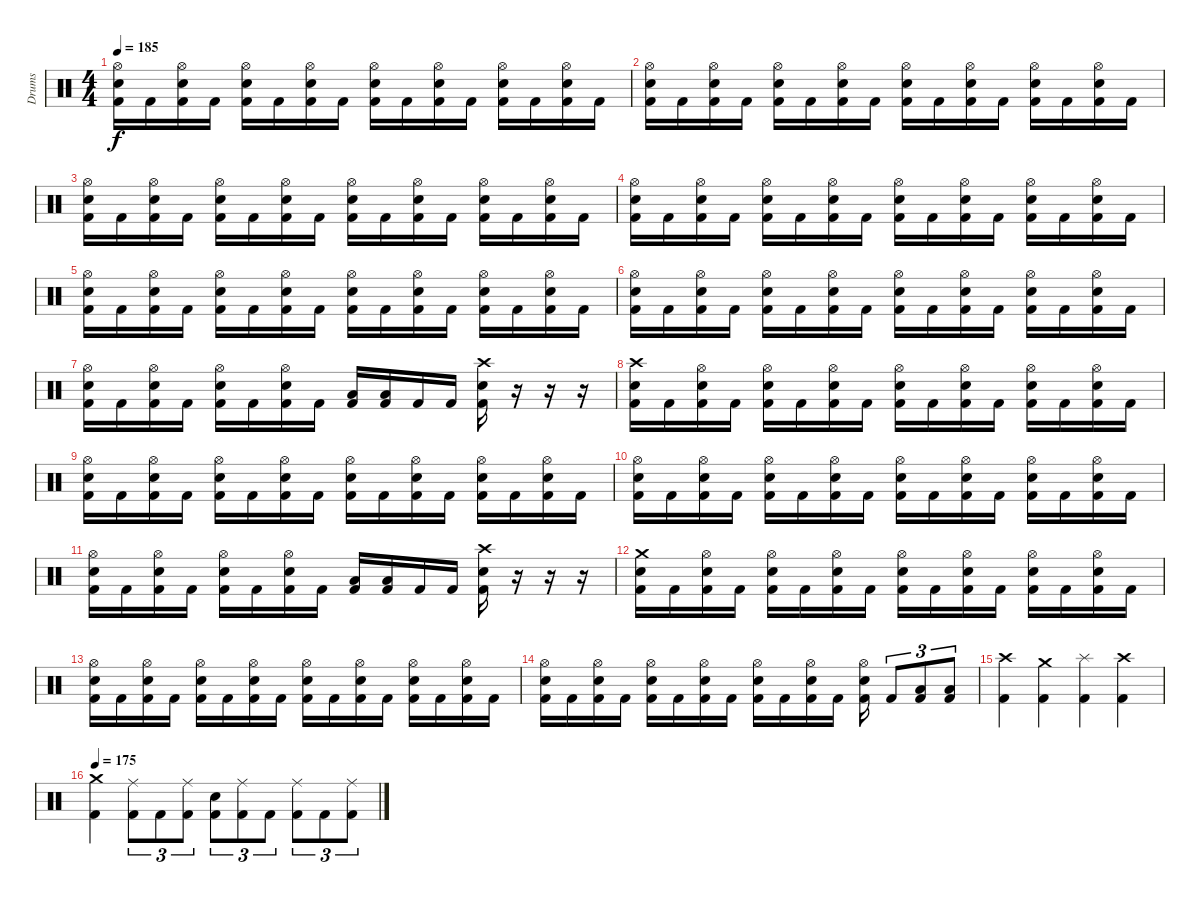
\track ("Drums" "Drums") {instrument percussion}
\staff {score}
\articulation defaults
\ts (4 4)
\tempo 185
\clef neutral
\ks c
("Hi-Hat (open)" "Electric Snare (hit)" "Kick (hit) 2").16{dy f} "Kick (hit) 2".16 ("Hi-Hat (open)" "Electric Snare (hit)" "Kick (hit) 2").16 "Kick (hit) 2".16 ("Hi-Hat (open)" "Electric Snare (hit)" "Kick (hit) 2").16 "Kick (hit) 2".16 ("Hi-Hat (open)" "Electric Snare (hit)" "Kick (hit) 2").16 "Kick (hit) 2".16 ("Hi-Hat (open)" "Electric Snare (hit)" "Kick (hit) 2").16 "Kick (hit) 2".16 ("Hi-Hat (open)" "Electric Snare (hit)" "Kick (hit) 2").16 "Kick (hit) 2".16 ("Hi-Hat (open)" "Electric Snare (hit)" "Kick (hit) 2").16 "Kick (hit) 2".16 ("Hi-Hat (open)" "Electric Snare (hit)" "Kick (hit) 2").16 "Kick (hit) 2".16 |
("Hi-Hat (open)" "Electric Snare (hit)" "Kick (hit) 2").16 "Kick (hit) 2".16 ("Hi-Hat (open)" "Electric Snare (hit)" "Kick (hit) 2").16 "Kick (hit) 2".16 ("Hi-Hat (open)" "Electric Snare (hit)" "Kick (hit) 2").16 "Kick (hit) 2".16 ("Hi-Hat (open)" "Electric Snare (hit)" "Kick (hit) 2").16 "Kick (hit) 2".16 ("Hi-Hat (open)" "Electric Snare (hit)" "Kick (hit) 2").16 "Kick (hit) 2".16 ("Hi-Hat (open)" "Electric Snare (hit)" "Kick (hit) 2").16 "Kick (hit) 2".16 ("Hi-Hat (open)" "Electric Snare (hit)" "Kick (hit) 2").16 "Kick (hit) 2".16 ("Hi-Hat (open)" "Electric Snare (hit)" "Kick (hit) 2").16 "Kick (hit) 2".16 |
("Hi-Hat (open)" "Electric Snare (hit)" "Kick (hit) 2").16 "Kick (hit) 2".16 ("Hi-Hat (open)" "Electric Snare (hit)" "Kick (hit) 2").16 "Kick (hit) 2".16 ("Hi-Hat (open)" "Electric Snare (hit)" "Kick (hit) 2").16 "Kick (hit) 2".16 ("Hi-Hat (open)" "Electric Snare (hit)" "Kick (hit) 2").16 "Kick (hit) 2".16 ("Hi-Hat (open)" "Electric Snare (hit)" "Kick (hit) 2").16 "Kick (hit) 2".16 ("Hi-Hat (open)" "Electric Snare (hit)" "Kick (hit) 2").16 "Kick (hit) 2".16 ("Hi-Hat (open)" "Electric Snare (hit)" "Kick (hit) 2").16 "Kick (hit) 2".16 ("Hi-Hat (open)" "Electric Snare (hit)" "Kick (hit) 2").16 "Kick (hit) 2".16 |
("Hi-Hat (open)" "Electric Snare (hit)" "Kick (hit) 2").16 "Kick (hit) 2".16 ("Hi-Hat (open)" "Electric Snare (hit)" "Kick (hit) 2").16 "Kick (hit) 2".16 ("Hi-Hat (open)" "Electric Snare (hit)" "Kick (hit) 2").16 "Kick (hit) 2".16 ("Hi-Hat (open)" "Electric Snare (hit)" "Kick (hit) 2").16 "Kick (hit) 2".16 ("Hi-Hat (open)" "Electric Snare (hit)" "Kick (hit) 2").16 "Kick (hit) 2".16 ("Hi-Hat (open)" "Electric Snare (hit)" "Kick (hit) 2").16 "Kick (hit) 2".16 ("Hi-Hat (open)" "Electric Snare (hit)" "Kick (hit) 2").16 "Kick (hit) 2".16 ("Hi-Hat (open)" "Electric Snare (hit)" "Kick (hit) 2").16 "Kick (hit) 2".16 |
("Hi-Hat (open)" "Electric Snare (hit)" "Kick (hit) 2").16 "Kick (hit) 2".16 ("Hi-Hat (open)" "Electric Snare (hit)" "Kick (hit) 2").16 "Kick (hit) 2".16 ("Hi-Hat (open)" "Electric Snare (hit)" "Kick (hit) 2").16 "Kick (hit) 2".16 ("Hi-Hat (open)" "Electric Snare (hit)" "Kick (hit) 2").16 "Kick (hit) 2".16 ("Hi-Hat (open)" "Electric Snare (hit)" "Kick (hit) 2").16 "Kick (hit) 2".16 ("Hi-Hat (open)" "Electric Snare (hit)" "Kick (hit) 2").16 "Kick (hit) 2".16 ("Hi-Hat (open)" "Electric Snare (hit)" "Kick (hit) 2").16 "Kick (hit) 2".16 ("Hi-Hat (open)" "Electric Snare (hit)" "Kick (hit) 2").16 "Kick (hit) 2".16 |
("Hi-Hat (open)" "Electric Snare (hit)" "Kick (hit) 2").16 "Kick (hit) 2".16 ("Hi-Hat (open)" "Electric Snare (hit)" "Kick (hit) 2").16 "Kick (hit) 2".16 ("Hi-Hat (open)" "Electric Snare (hit)" "Kick (hit) 2").16 "Kick (hit) 2".16 ("Hi-Hat (open)" "Electric Snare (hit)" "Kick (hit) 2").16 "Kick (hit) 2".16 ("Hi-Hat (open)" "Electric Snare (hit)" "Kick (hit) 2").16 "Kick (hit) 2".16 ("Hi-Hat (open)" "Electric Snare (hit)" "Kick (hit) 2").16 "Kick (hit) 2".16 ("Hi-Hat (open)" "Electric Snare (hit)" "Kick (hit) 2").16 "Kick (hit) 2".16 ("Hi-Hat (open)" "Electric Snare (hit)" "Kick (hit) 2").16 "Kick (hit) 2".16 |
("Hi-Hat (open)" "Electric Snare (hit)" "Kick (hit) 2").16 "Kick (hit) 2".16 ("Hi-Hat (open)" "Electric Snare (hit)" "Kick (hit) 2").16 "Kick (hit) 2".16 ("Hi-Hat (open)" "Electric Snare (hit)" "Kick (hit) 2").16 "Kick (hit) 2".16 ("Hi-Hat (open)" "Electric Snare (hit)" "Kick (hit) 2").16 "Kick (hit) 2".16 ("Low Tom (hit)" "Kick (hit) 2").16 ("Low Tom (hit)" "Kick (hit) 2").16 "Kick (hit) 2".16 "Kick (hit) 2".16 ("Crash high (hit)" "Electric Snare (hit)" "Kick (hit) 2").16 r.16 r.16 r.16 |
("Crash high (hit)" "Electric Snare (hit)" "Kick (hit) 2").16 "Kick (hit) 2".16 ("Hi-Hat (open)" "Electric Snare (hit)" "Kick (hit) 2").16 "Kick (hit) 2".16 ("Hi-Hat (open)" "Electric Snare (hit)" "Kick (hit) 2").16 "Kick (hit) 2".16 ("Hi-Hat (open)" "Electric Snare (hit)" "Kick (hit) 2").16 "Kick (hit) 2".16 ("Hi-Hat (open)" "Electric Snare (hit)" "Kick (hit) 2").16 "Kick (hit) 2".16 ("Hi-Hat (open)" "Electric Snare (hit)" "Kick (hit) 2").16 "Kick (hit) 2".16 ("Hi-Hat (open)" "Electric Snare (hit)" "Kick (hit) 2").16 "Kick (hit) 2".16 ("Hi-Hat (open)" "Electric Snare (hit)" "Kick (hit) 2").16 "Kick (hit) 2".16 |
("Hi-Hat (open)" "Electric Snare (hit)" "Kick (hit) 2").16 "Kick (hit) 2".16 ("Hi-Hat (open)" "Electric Snare (hit)" "Kick (hit) 2").16 "Kick (hit) 2".16 ("Hi-Hat (open)" "Electric Snare (hit)" "Kick (hit) 2").16 "Kick (hit) 2".16 ("Hi-Hat (open)" "Electric Snare (hit)" "Kick (hit) 2").16 "Kick (hit) 2".16 ("Hi-Hat (open)" "Electric Snare (hit)" "Kick (hit) 2").16 "Kick (hit) 2".16 ("Hi-Hat (open)" "Electric Snare (hit)" "Kick (hit) 2").16 "Kick (hit) 2".16 ("Hi-Hat (open)" "Electric Snare (hit)" "Kick (hit) 2").16 "Kick (hit) 2".16 ("Hi-Hat (open)" "Electric Snare (hit)" "Kick (hit) 2").16 "Kick (hit) 2".16 |
("Hi-Hat (open)" "Electric Snare (hit)" "Kick (hit) 2").16 "Kick (hit) 2".16 ("Hi-Hat (open)" "Electric Snare (hit)" "Kick (hit) 2").16 "Kick (hit) 2".16 ("Hi-Hat (open)" "Electric Snare (hit)" "Kick (hit) 2").16 "Kick (hit) 2".16 ("Hi-Hat (open)" "Electric Snare (hit)" "Kick (hit) 2").16 "Kick (hit) 2".16 ("Hi-Hat (open)" "Electric Snare (hit)" "Kick (hit) 2").16 "Kick (hit) 2".16 ("Hi-Hat (open)" "Electric Snare (hit)" "Kick (hit) 2").16 "Kick (hit) 2".16 ("Hi-Hat (open)" "Electric Snare (hit)" "Kick (hit) 2").16 "Kick (hit) 2".16 ("Hi-Hat (open)" "Electric Snare (hit)" "Kick (hit) 2").16 "Kick (hit) 2".16 |
("Hi-Hat (open)" "Electric Snare (hit)" "Kick (hit) 2").16 "Kick (hit) 2".16 ("Hi-Hat (open)" "Electric Snare (hit)" "Kick (hit) 2").16 "Kick (hit) 2".16 ("Hi-Hat (open)" "Electric Snare (hit)" "Kick (hit) 2").16 "Kick (hit) 2".16 ("Hi-Hat (open)" "Electric Snare (hit)" "Kick (hit) 2").16 "Kick (hit) 2".16 ("Low Tom (hit)" "Kick (hit) 2").16 ("Low Tom (hit)" "Kick (hit) 2").16 "Kick (hit) 2".16 "Kick (hit) 2".16 ("Crash high (hit)" "Electric Snare (hit)" "Kick (hit) 2").16 r.16 r.16 r.16 |
("Crash medium (hit)" "Electric Snare (hit)" "Kick (hit) 2").16 "Kick (hit) 2".16 ("Hi-Hat (open)" "Electric Snare (hit)" "Kick (hit) 2").16 "Kick (hit) 2".16 ("Hi-Hat (open)" "Electric Snare (hit)" "Kick (hit) 2").16 "Kick (hit) 2".16 ("Hi-Hat (open)" "Electric Snare (hit)" "Kick (hit) 2").16 "Kick (hit) 2".16 ("Hi-Hat (open)" "Electric Snare (hit)" "Kick (hit) 2").16 "Kick (hit) 2".16 ("Hi-Hat (open)" "Electric Snare (hit)" "Kick (hit) 2").16 "Kick (hit) 2".16 ("Hi-Hat (open)" "Electric Snare (hit)" "Kick (hit) 2").16 "Kick (hit) 2".16 ("Hi-Hat (open)" "Electric Snare (hit)" "Kick (hit) 2").16 "Kick (hit) 2".16 |
("Hi-Hat (open)" "Electric Snare (hit)" "Kick (hit) 2").16 "Kick (hit) 2".16 ("Hi-Hat (open)" "Electric Snare (hit)" "Kick (hit) 2").16 "Kick (hit) 2".16 ("Hi-Hat (open)" "Electric Snare (hit)" "Kick (hit) 2").16 "Kick (hit) 2".16 ("Hi-Hat (open)" "Electric Snare (hit)" "Kick (hit) 2").16 "Kick (hit) 2".16 ("Hi-Hat (open)" "Electric Snare (hit)" "Kick (hit) 2").16 "Kick (hit) 2".16 ("Hi-Hat (open)" "Electric Snare (hit)" "Kick (hit) 2").16 "Kick (hit) 2".16 ("Hi-Hat (open)" "Electric Snare (hit)" "Kick (hit) 2").16 "Kick (hit) 2".16 ("Hi-Hat (open)" "Electric Snare (hit)" "Kick (hit) 2").16 "Kick (hit) 2".16 |
("Hi-Hat (open)" "Electric Snare (hit)" "Kick (hit) 2").16 "Kick (hit) 2".16 ("Hi-Hat (open)" "Electric Snare (hit)" "Kick (hit) 2").16 "Kick (hit) 2".16 ("Hi-Hat (open)" "Electric Snare (hit)" "Kick (hit) 2").16 "Kick (hit) 2".16 ("Hi-Hat (open)" "Electric Snare (hit)" "Kick (hit) 2").16 "Kick (hit) 2".16 ("Hi-Hat (open)" "Electric Snare (hit)" "Kick (hit) 2").16 "Kick (hit) 2".16 ("Hi-Hat (open)" "Electric Snare (hit)" "Kick (hit) 2").16 "Kick (hit) 2".16 ("Hi-Hat (open)" "Electric Snare (hit)" "Kick (hit) 2").16 "Kick (hit) 2".8{tu (3 2)} ("Low Tom (hit)" "Kick (hit) 2").8{tu (3 2)} ("Low Tom (hit)" "Kick (hit) 2").8{tu (3 2)} |
("Crash high (hit)" "Kick (hit) 2").4 ("Crash medium (hit)" "Kick (hit) 2").4 ("Splash (hit)" "Kick (hit) 2").4 ("Crash high (hit)" "Kick (hit) 2").4 |
\tempo 175
("Crash medium (hit)" "Kick (hit) 2").4 ("Ride (middle)" "Kick (hit) 2").8{tu (3 2)} "Kick (hit) 2".8{tu (3 2)} ("Ride (middle)" "Kick (hit) 2").8{tu (3 2)} ("Electric Snare (hit)" "Kick (hit) 2").8{tu (3 2)} ("Ride (middle)" "Kick (hit) 2").8{tu (3 2)} "Kick (hit) 2".8{tu (3 2)} ("Ride (middle)" "Kick (hit) 2").8{tu (3 2)} "Kick (hit) 2".8{tu (3 2)} ("Ride (middle)" "Kick (hit) 2").8{tu (3 2)}
